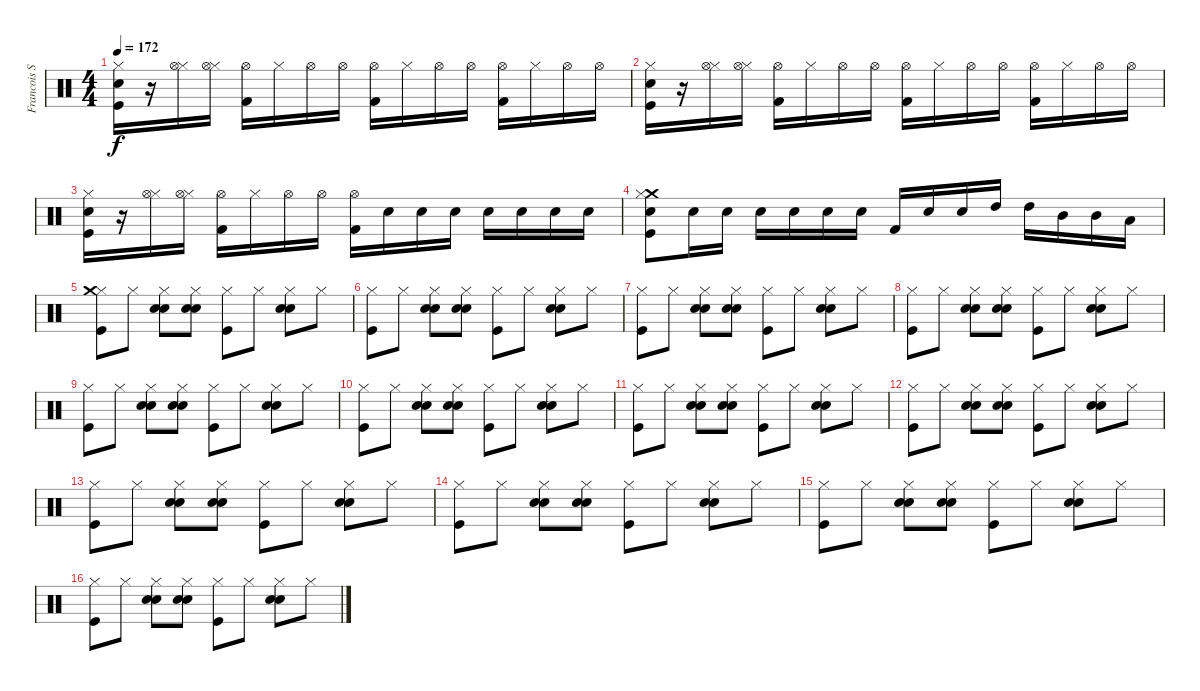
\track ("Francois Soulier" "Francois S") {instrument percussion}
\staff {score}
\articulation defaults
\ts (4 4)
\tempo 172
\clef neutral
\ks c
("Hi-Hat (closed)" "Snare (hit) 2" "Kick (hit)").16{dy f} r.16 ("Hi-Hat (closed)" "Hi-Hat (open)").16 ("Hi-Hat (closed)" "Hi-Hat (open)").16 ("Kick (hit) 2" "Hi-Hat (open)").16 "Hi-Hat (closed)".16 "Hi-Hat (open)".16 "Hi-Hat (open)".16 ("Kick (hit) 2" "Hi-Hat (open)").16 "Hi-Hat (closed)".16 "Hi-Hat (open)".16 "Hi-Hat (open)".16 ("Kick (hit) 2" "Hi-Hat (open)").16 "Hi-Hat (closed)".16 "Hi-Hat (open)".16 "Hi-Hat (open)".16 |
("Hi-Hat (closed)" "Snare (hit) 2" "Kick (hit)").16 r.16 ("Hi-Hat (closed)" "Hi-Hat (open)").16 ("Hi-Hat (closed)" "Hi-Hat (open)").16 ("Kick (hit) 2" "Hi-Hat (open)").16 "Hi-Hat (closed)".16 "Hi-Hat (open)".16 "Hi-Hat (open)".16 ("Kick (hit) 2" "Hi-Hat (open)").16 "Hi-Hat (closed)".16 "Hi-Hat (open)".16 "Hi-Hat (open)".16 ("Kick (hit) 2" "Hi-Hat (open)").16 "Hi-Hat (closed)".16 "Hi-Hat (open)".16 "Hi-Hat (open)".16 |
("Hi-Hat (closed)" "Snare (hit) 2" "Kick (hit)").16 r.16 ("Hi-Hat (closed)" "Hi-Hat (open)").16 ("Hi-Hat (closed)" "Hi-Hat (open)").16 ("Kick (hit) 2" "Hi-Hat (open)").16 "Hi-Hat (closed)".16 "Hi-Hat (open)".16 "Hi-Hat (open)".16 ("Kick (hit) 2" "Hi-Hat (open)").16 "Electric Snare (hit)".16 "Electric Snare (hit)".16 "Electric Snare (hit)".16 "Electric Snare (hit)".16 "Electric Snare (hit)".16 "Electric Snare (hit)".16 "Electric Snare (hit)".16 |
("Crash medium (hit)" "Hi-Hat (closed)" "Snare (hit) 2" "Kick (hit)").8 "Electric Snare (hit)".16 "Electric Snare (hit)".16 "Electric Snare (hit)".16 "Electric Snare (hit)".16 "Electric Snare (hit)".16 "Electric Snare (hit)".16 "Kick (hit) 2".16 "Electric Snare (hit)".16 "Electric Snare (hit)".16 "High Tom (hit)".16 "High Tom (hit)".16 "Mid Tom (hit)".16 "Mid Tom (hit)".16 "Low Tom (hit)".16 |
("Hi-Hat (closed)" "Crash medium (hit)" "Kick (hit)").8 "Hi-Hat (closed)".8 ("Electric Snare (hit)" "Hi-Hat (closed)" "Snare (hit) 2").8 ("Electric Snare (hit)" "Hi-Hat (closed)" "Snare (hit) 2").8 ("Hi-Hat (closed)" "Kick (hit)").8 "Hi-Hat (closed)".8 ("Electric Snare (hit)" "Hi-Hat (closed)" "Snare (hit) 2").8 "Hi-Hat (closed)".8 |
("Hi-Hat (closed)" "Kick (hit)").8 "Hi-Hat (closed)".8 ("Electric Snare (hit)" "Hi-Hat (closed)" "Snare (hit) 2").8 ("Electric Snare (hit)" "Hi-Hat (closed)" "Snare (hit) 2").8 ("Hi-Hat (closed)" "Kick (hit)").8 "Hi-Hat (closed)".8 ("Electric Snare (hit)" "Hi-Hat (closed)" "Snare (hit) 2").8 "Hi-Hat (closed)".8 |
("Hi-Hat (closed)" "Kick (hit)").8 "Hi-Hat (closed)".8 ("Electric Snare (hit)" "Hi-Hat (closed)" "Snare (hit) 2").8 ("Electric Snare (hit)" "Hi-Hat (closed)" "Snare (hit) 2").8 ("Hi-Hat (closed)" "Kick (hit)").8 "Hi-Hat (closed)".8 ("Electric Snare (hit)" "Hi-Hat (closed)" "Snare (hit) 2").8 "Hi-Hat (closed)".8 |
("Hi-Hat (closed)" "Kick (hit)").8 "Hi-Hat (closed)".8 ("Electric Snare (hit)" "Hi-Hat (closed)" "Snare (hit) 2").8 ("Electric Snare (hit)" "Hi-Hat (closed)" "Snare (hit) 2").8 ("Hi-Hat (closed)" "Kick (hit)").8 "Hi-Hat (closed)".8 ("Electric Snare (hit)" "Hi-Hat (closed)" "Snare (hit) 2").8 "Hi-Hat (closed)".8 |
("Hi-Hat (closed)" "Kick (hit)").8 "Hi-Hat (closed)".8 ("Electric Snare (hit)" "Hi-Hat (closed)" "Snare (hit) 2").8 ("Electric Snare (hit)" "Hi-Hat (closed)" "Snare (hit) 2").8 ("Hi-Hat (closed)" "Kick (hit)").8 "Hi-Hat (closed)".8 ("Electric Snare (hit)" "Hi-Hat (closed)" "Snare (hit) 2").8 "Hi-Hat (closed)".8 |
("Hi-Hat (closed)" "Kick (hit)").8 "Hi-Hat (closed)".8 ("Electric Snare (hit)" "Hi-Hat (closed)" "Snare (hit) 2").8 ("Electric Snare (hit)" "Hi-Hat (closed)" "Snare (hit) 2").8 ("Hi-Hat (closed)" "Kick (hit)").8 "Hi-Hat (closed)".8 ("Electric Snare (hit)" "Hi-Hat (closed)" "Snare (hit) 2").8 "Hi-Hat (closed)".8 |
("Hi-Hat (closed)" "Kick (hit)").8 "Hi-Hat (closed)".8 ("Electric Snare (hit)" "Hi-Hat (closed)" "Snare (hit) 2").8 ("Electric Snare (hit)" "Hi-Hat (closed)" "Snare (hit) 2").8 ("Hi-Hat (closed)" "Kick (hit)").8 "Hi-Hat (closed)".8 ("Electric Snare (hit)" "Hi-Hat (closed)" "Snare (hit) 2").8 "Hi-Hat (closed)".8 |
("Hi-Hat (closed)" "Kick (hit)").8 "Hi-Hat (closed)".8 ("Electric Snare (hit)" "Hi-Hat (closed)" "Snare (hit) 2").8 ("Electric Snare (hit)" "Hi-Hat (closed)" "Snare (hit) 2").8 ("Hi-Hat (closed)" "Kick (hit)").8 "Hi-Hat (closed)".8 ("Electric Snare (hit)" "Hi-Hat (closed)" "Snare (hit) 2").8 "Hi-Hat (closed)".8 |
("Hi-Hat (closed)" "Kick (hit)").8 "Hi-Hat (closed)".8 ("Electric Snare (hit)" "Hi-Hat (closed)" "Snare (hit) 2").8 ("Electric Snare (hit)" "Hi-Hat (closed)" "Snare (hit) 2").8 ("Hi-Hat (closed)" "Kick (hit)").8 "Hi-Hat (closed)".8 ("Electric Snare (hit)" "Hi-Hat (closed)" "Snare (hit) 2").8 "Hi-Hat (closed)".8 |
("Hi-Hat (closed)" "Kick (hit)").8 "Hi-Hat (closed)".8 ("Electric Snare (hit)" "Hi-Hat (closed)" "Snare (hit) 2").8 ("Electric Snare (hit)" "Hi-Hat (closed)" "Snare (hit) 2").8 ("Hi-Hat (closed)" "Kick (hit)").8 "Hi-Hat (closed)".8 ("Electric Snare (hit)" "Hi-Hat (closed)" "Snare (hit) 2").8 "Hi-Hat (closed)".8 |
("Hi-Hat (closed)" "Kick (hit)").8 "Hi-Hat (closed)".8 ("Electric Snare (hit)" "Hi-Hat (closed)" "Snare (hit) 2").8 ("Electric Snare (hit)" "Hi-Hat (closed)" "Snare (hit) 2").8 ("Hi-Hat (closed)" "Kick (hit)").8 "Hi-Hat (closed)".8 ("Electric Snare (hit)" "Hi-Hat (closed)" "Snare (hit) 2").8 "Hi-Hat (closed)".8 |
("Hi-Hat (closed)" "Kick (hit)").8 "Hi-Hat (closed)".8 ("Electric Snare (hit)" "Hi-Hat (closed)" "Snare (hit) 2").8 ("Electric Snare (hit)" "Hi-Hat (closed)" "Snare (hit) 2").8 ("Hi-Hat (closed)" "Kick (hit)").8 "Hi-Hat (closed)".8 ("Electric Snare (hit)" "Hi-Hat (closed)" "Snare (hit) 2").8 "Hi-Hat (closed)".8
